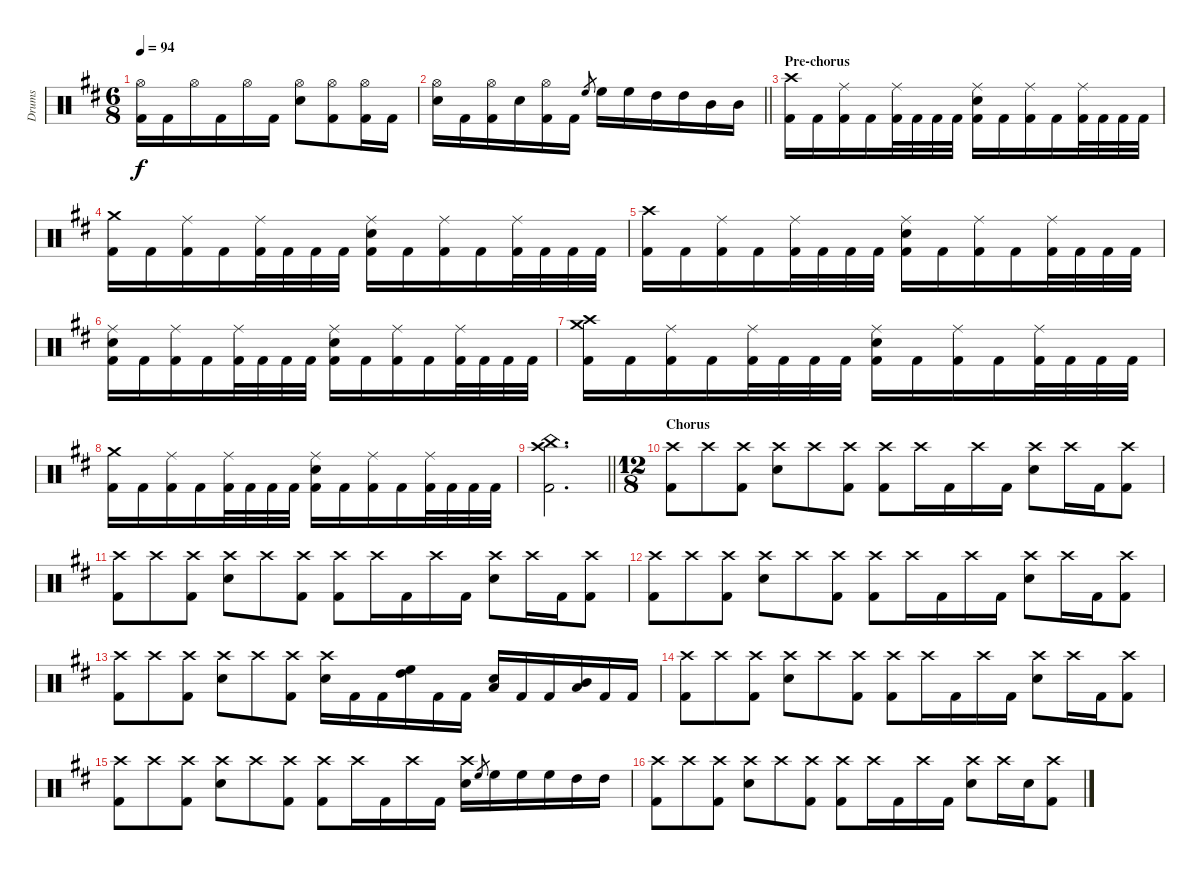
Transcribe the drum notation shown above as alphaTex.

\track ("Drums" "Drums") {instrument percussion}
\staff {score}
\articulation defaults
\ts (6 8)
\tempo 94
\clef neutral
\ks bminor
("Hi-Hat (open)" "Kick (hit) 2").16{dy f} "Kick (hit) 2".16 "Hi-Hat (open)".16 "Kick (hit) 2".16 "Hi-Hat (open)".16 "Kick (hit) 2".16 ("Hi-Hat (open)" "Snare (hit) 2").8 ("Hi-Hat (open)" "Kick (hit) 2").8 ("Hi-Hat (open)" "Kick (hit) 2").16 "Kick (hit) 2".16 |
\barLineRight lightlight
("Hi-Hat (open)" "Snare (hit) 2").16 "Kick (hit) 2".16 ("Hi-Hat (open)" "Kick (hit) 2").16 "Snare (hit) 2".16 ("Hi-Hat (open)" "Kick (hit) 2").16 "Kick (hit) 2".16 "High Floor Tom (hit)".8{gr} "High Floor Tom (hit)".16 "High Floor Tom (hit)".16 "High Tom (hit)".16 "High Tom (hit)".16 "Mid Tom (hit)".16 "Mid Tom (hit)".16 |
\section ("" "Pre-chorus")
("Crash high (hit)" "Kick (hit) 2").16 "Kick (hit) 2".16 ("Ride (middle)" "Kick (hit) 2").16 "Kick (hit) 2".16 ("Ride (middle)" "Kick (hit) 2").32 "Kick (hit) 2".32 "Kick (hit) 2".32 "Kick (hit) 2".32 ("Ride (middle)" "Snare (hit) 2" "Kick (hit) 2").16 "Kick (hit) 2".16 ("Ride (middle)" "Kick (hit) 2").16 "Kick (hit) 2".16 ("Ride (middle)" "Kick (hit) 2").32 "Kick (hit) 2".32 "Kick (hit) 2".32 "Kick (hit) 2".32 |
("Crash medium (hit)" "Kick (hit) 2").16 "Kick (hit) 2".16 ("Ride (middle)" "Kick (hit) 2").16 "Kick (hit) 2".16 ("Ride (middle)" "Kick (hit) 2").32 "Kick (hit) 2".32 "Kick (hit) 2".32 "Kick (hit) 2".32 ("Ride (middle)" "Snare (hit) 2" "Kick (hit) 2").16 "Kick (hit) 2".16 ("Ride (middle)" "Kick (hit) 2").16 "Kick (hit) 2".16 ("Ride (middle)" "Kick (hit) 2").32 "Kick (hit) 2".32 "Kick (hit) 2".32 "Kick (hit) 2".32 |
("Crash high (hit)" "Kick (hit) 2").16 "Kick (hit) 2".16 ("Ride (middle)" "Kick (hit) 2").16 "Kick (hit) 2".16 ("Ride (middle)" "Kick (hit) 2").32 "Kick (hit) 2".32 "Kick (hit) 2".32 "Kick (hit) 2".32 ("Ride (middle)" "Snare (hit) 2" "Kick (hit) 2").16 "Kick (hit) 2".16 ("Ride (middle)" "Kick (hit) 2").16 "Kick (hit) 2".16 ("Ride (middle)" "Kick (hit) 2").32 "Kick (hit) 2".32 "Kick (hit) 2".32 "Kick (hit) 2".32 |
("Ride (middle)" "Snare (hit) 2" "Kick (hit) 2").16 "Kick (hit) 2".16 ("Ride (middle)" "Kick (hit) 2").16 "Kick (hit) 2".16 ("Ride (middle)" "Kick (hit) 2").32 "Kick (hit) 2".32 "Kick (hit) 2".32 "Kick (hit) 2".32 ("Ride (middle)" "Snare (hit) 2" "Kick (hit) 2").16 "Kick (hit) 2".16 ("Ride (middle)" "Kick (hit) 2").16 "Kick (hit) 2".16 ("Ride (middle)" "Kick (hit) 2").32 "Kick (hit) 2".32 "Kick (hit) 2".32 "Kick (hit) 2".32 |
("Crash high (hit)" "Crash medium (hit)" "Kick (hit) 2").16 "Kick (hit) 2".16 ("Ride (middle)" "Kick (hit) 2").16 "Kick (hit) 2".16 ("Ride (middle)" "Kick (hit) 2").32 "Kick (hit) 2".32 "Kick (hit) 2".32 "Kick (hit) 2".32 ("Ride (middle)" "Snare (hit) 2" "Kick (hit) 2").16 "Kick (hit) 2".16 ("Ride (middle)" "Kick (hit) 2").16 "Kick (hit) 2".16 ("Ride (middle)" "Kick (hit) 2").32 "Kick (hit) 2".32 "Kick (hit) 2".32 "Kick (hit) 2".32 |
("Crash medium (hit)" "Kick (hit) 2").16 "Kick (hit) 2".16 ("Ride (middle)" "Kick (hit) 2").16 "Kick (hit) 2".16 ("Ride (middle)" "Kick (hit) 2").32 "Kick (hit) 2".32 "Kick (hit) 2".32 "Kick (hit) 2".32 ("Ride (middle)" "Snare (hit) 2" "Kick (hit) 2").16 "Kick (hit) 2".16 ("Ride (middle)" "Kick (hit) 2").16 "Kick (hit) 2".16 ("Ride (middle)" "Kick (hit) 2").32 "Kick (hit) 2".32 "Kick (hit) 2".32 "Kick (hit) 2".32 |
\barLineRight lightlight
("Crash high (hit)" "China (hit)" "Kick (hit) 2").2{d} |
\ts (12 8)
\section ("" "Chorus")
("Crash high (hit)" "Kick (hit) 2").8 "Crash high (hit)".8 ("Crash high (hit)" "Kick (hit) 2").8 ("Crash high (hit)" "Snare (hit) 2").8 "Crash high (hit)".8 ("Crash high (hit)" "Kick (hit) 2").8 ("Crash high (hit)" "Kick (hit) 2").8 "Crash high (hit)".16 "Kick (hit) 2".16 "Crash high (hit)".16 "Kick (hit) 2".16 ("Crash high (hit)" "Snare (hit) 2").8 "Crash high (hit)".16 "Kick (hit) 2".16 ("Crash high (hit)" "Kick (hit) 2").8 |
("Crash high (hit)" "Kick (hit) 2").8 "Crash high (hit)".8 ("Crash high (hit)" "Kick (hit) 2").8 ("Crash high (hit)" "Snare (hit) 2").8 "Crash high (hit)".8 ("Crash high (hit)" "Kick (hit) 2").8 ("Crash high (hit)" "Kick (hit) 2").8 "Crash high (hit)".16 "Kick (hit) 2".16 "Crash high (hit)".16 "Kick (hit) 2".16 ("Crash high (hit)" "Snare (hit) 2").8 "Crash high (hit)".16 "Kick (hit) 2".16 ("Crash high (hit)" "Kick (hit) 2").8 |
("Crash high (hit)" "Kick (hit) 2").8 "Crash high (hit)".8 ("Crash high (hit)" "Kick (hit) 2").8 ("Crash high (hit)" "Snare (hit) 2").8 "Crash high (hit)".8 ("Crash high (hit)" "Kick (hit) 2").8 ("Crash high (hit)" "Kick (hit) 2").8 "Crash high (hit)".16 "Kick (hit) 2".16 "Crash high (hit)".16 "Kick (hit) 2".16 ("Crash high (hit)" "Snare (hit) 2").8 "Crash high (hit)".16 "Kick (hit) 2".16 ("Crash high (hit)" "Kick (hit) 2").8 |
("Crash high (hit)" "Kick (hit) 2").8 "Crash high (hit)".8 ("Crash high (hit)" "Kick (hit) 2").8 ("Crash high (hit)" "Snare (hit) 2").8 "Crash high (hit)".8 ("Crash high (hit)" "Kick (hit) 2").8 ("Crash high (hit)" "Snare (hit) 2").16 "Kick (hit) 2".16 "Kick (hit) 2".16 ("High Floor Tom (hit)" "High Tom (hit)").16 "Kick (hit) 2".16 "Kick (hit) 2".16 ("Low Tom (hit)" "Snare (hit) 2").16 "Kick (hit) 2".16 "Kick (hit) 2".16 ("Mid Tom (hit)" "Low Tom (hit)").16 "Kick (hit) 2".16 "Kick (hit) 2".16 |
("Crash high (hit)" "Kick (hit) 2").8 "Crash high (hit)".8 ("Crash high (hit)" "Kick (hit) 2").8 ("Crash high (hit)" "Snare (hit) 2").8 "Crash high (hit)".8 ("Crash high (hit)" "Kick (hit) 2").8 ("Crash high (hit)" "Kick (hit) 2").8 "Crash high (hit)".16 "Kick (hit) 2".16 "Crash high (hit)".16 "Kick (hit) 2".16 ("Crash high (hit)" "Snare (hit) 2").8 "Crash high (hit)".16 "Kick (hit) 2".16 ("Crash high (hit)" "Kick (hit) 2").8 |
("Crash high (hit)" "Kick (hit) 2").8 "Crash high (hit)".8 ("Crash high (hit)" "Kick (hit) 2").8 ("Crash high (hit)" "Snare (hit) 2").8 "Crash high (hit)".8 ("Crash high (hit)" "Kick (hit) 2").8 ("Crash high (hit)" "Kick (hit) 2").8 "Crash high (hit)".16 "Kick (hit) 2".16 "Crash high (hit)".16 "Kick (hit) 2".16 ("Crash high (hit)" "Snare (hit) 2").16 "High Floor Tom (hit)".8{gr} "High Floor Tom (hit)".16 "High Floor Tom (hit)".16 "High Floor Tom (hit)".16 "High Tom (hit)".16 "High Tom (hit)".16 |
("Crash high (hit)" "Kick (hit) 2").8 "Crash high (hit)".8 ("Crash high (hit)" "Kick (hit) 2").8 ("Crash high (hit)" "Snare (hit) 2").8 "Crash high (hit)".8 ("Crash high (hit)" "Kick (hit) 2").8 ("Crash high (hit)" "Kick (hit) 2").8 "Crash high (hit)".16 "Kick (hit) 2".16 "Crash high (hit)".16 "Kick (hit) 2".16 ("Crash high (hit)" "Snare (hit) 2").8 "Crash high (hit)".16 "Snare (hit) 2".16 ("Crash high (hit)" "Kick (hit) 2").8
